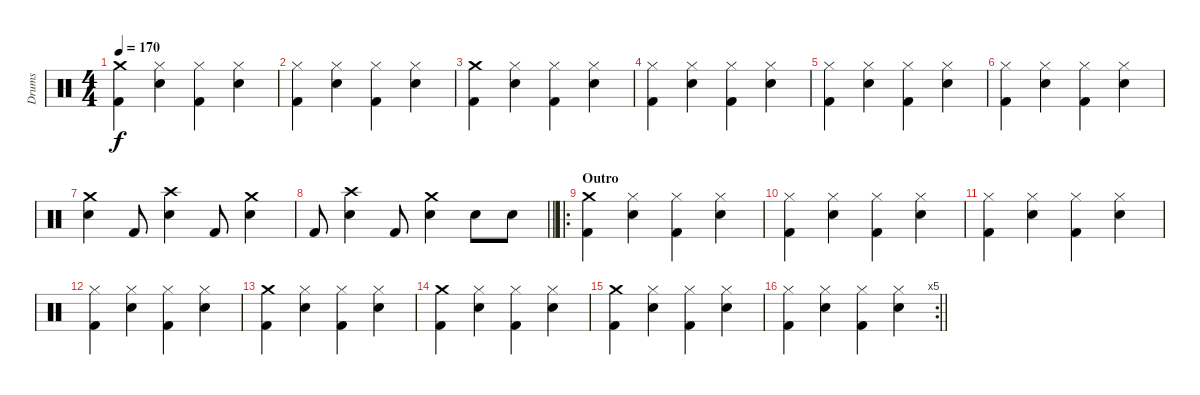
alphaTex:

\track ("Drums" "Drums") {instrument percussion}
\staff {score}
\articulation defaults
\ts (4 4)
\tempo 170
\clef neutral
\ks c
("Crash medium (hit)" "Kick (hit) 2").4{dy f} ("Hi-Hat (closed)" "Electric Snare (hit)").4 ("Hi-Hat (closed)" "Kick (hit) 2").4 ("Hi-Hat (closed)" "Electric Snare (hit)").4 |
("Hi-Hat (closed)" "Kick (hit) 2").4 ("Hi-Hat (closed)" "Electric Snare (hit)").4 ("Hi-Hat (closed)" "Kick (hit) 2").4 ("Hi-Hat (closed)" "Electric Snare (hit)").4 |
("Crash medium (hit)" "Kick (hit) 2").4 ("Hi-Hat (closed)" "Electric Snare (hit)").4 ("Hi-Hat (closed)" "Kick (hit) 2").4 ("Hi-Hat (closed)" "Electric Snare (hit)").4 |
("Hi-Hat (closed)" "Kick (hit) 2").4 ("Hi-Hat (closed)" "Electric Snare (hit)").4 ("Hi-Hat (closed)" "Kick (hit) 2").4 ("Hi-Hat (closed)" "Electric Snare (hit)").4 |
("Hi-Hat (closed)" "Kick (hit) 2").4 ("Hi-Hat (closed)" "Electric Snare (hit)").4 ("Hi-Hat (closed)" "Kick (hit) 2").4 ("Hi-Hat (closed)" "Electric Snare (hit)").4 |
("Hi-Hat (closed)" "Kick (hit) 2").4 ("Hi-Hat (closed)" "Electric Snare (hit)").4 ("Hi-Hat (closed)" "Kick (hit) 2").4 ("Hi-Hat (closed)" "Electric Snare (hit)").4 |
("Crash medium (hit)" "Electric Snare (hit)").4 "Kick (hit) 2".8 ("Crash high (hit)" "Electric Snare (hit)").4 "Kick (hit) 2".8 ("Crash medium (hit)" "Electric Snare (hit)").4 |
\barLineRight lightlight "Kick (hit) 2".8
("Crash high (hit)" "Electric Snare (hit)").4 "Kick (hit) 2".8 ("Crash medium (hit)" "Electric Snare (hit)").4 "Electric Snare (hit)".8 "Electric Snare (hit)".8 |
\ro
\section ("" "Outro")
("Crash medium (hit)" "Kick (hit) 2").4 ("Hi-Hat (closed)" "Electric Snare (hit)").4 ("Hi-Hat (closed)" "Kick (hit) 2").4 ("Hi-Hat (closed)" "Electric Snare (hit)").4 |
("Hi-Hat (closed)" "Kick (hit) 2").4 ("Hi-Hat (closed)" "Electric Snare (hit)").4 ("Hi-Hat (closed)" "Kick (hit) 2").4 ("Hi-Hat (closed)" "Electric Snare (hit)").4 |
("Hi-Hat (closed)" "Kick (hit) 2").4 ("Hi-Hat (closed)" "Electric Snare (hit)").4 ("Hi-Hat (closed)" "Kick (hit) 2").4 ("Hi-Hat (closed)" "Electric Snare (hit)").4 |
("Hi-Hat (closed)" "Kick (hit) 2").4 ("Hi-Hat (closed)" "Electric Snare (hit)").4 ("Hi-Hat (closed)" "Kick (hit) 2").4 ("Hi-Hat (closed)" "Electric Snare (hit)").4 |
("Crash medium (hit)" "Kick (hit) 2").4 ("Hi-Hat (closed)" "Electric Snare (hit)").4 ("Hi-Hat (closed)" "Kick (hit) 2").4 ("Hi-Hat (closed)" "Electric Snare (hit)").4 |
("Crash medium (hit)" "Kick (hit) 2").4 ("Hi-Hat (closed)" "Electric Snare (hit)").4 ("Hi-Hat (closed)" "Kick (hit) 2").4 ("Hi-Hat (closed)" "Electric Snare (hit)").4 |
("Crash medium (hit)" "Kick (hit) 2").4 ("Hi-Hat (closed)" "Electric Snare (hit)").4 ("Hi-Hat (closed)" "Kick (hit) 2").4 ("Hi-Hat (closed)" "Electric Snare (hit)").4 |
\rc 5
\barLineRight lightlight
("Hi-Hat (closed)" "Kick (hit) 2").4 ("Hi-Hat (closed)" "Electric Snare (hit)").4 ("Hi-Hat (closed)" "Kick (hit) 2").4 ("Hi-Hat (closed)" "Electric Snare (hit)").4
